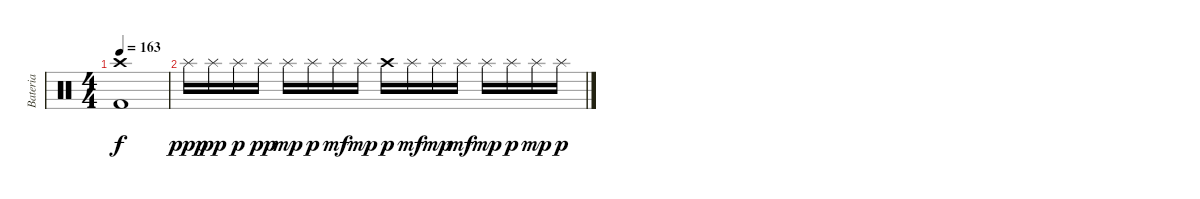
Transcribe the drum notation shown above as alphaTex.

\track ("Bateria" "Bateria") {instrument percussion}
\staff {score}
\articulation defaults
\ts (4 4)
\tempo 163
\clef neutral
\ks c
("Crash high (hit)" "Kick (hit) 2").1{dy f} |
"Splash (hit)".16{dy ppp} "Splash (hit)".16{dy pp} "Splash (hit)".16{dy p} "Splash (hit)".16{dy pp} "Splash (hit)".16{dy mp} "Splash (hit)".16{dy p} "Splash (hit)".16{dy mf} "Splash (hit)".16{dy mp} "Crash high (hit)".16{dy p} "Splash (hit)".16{dy mf} "Splash (hit)".16{dy mp} "Splash (hit)".16{dy mf} "Splash (hit)".16{dy mp} "Splash (hit)".16{dy p} "Splash (hit)".16{dy mp} "Splash (hit)".16{dy p}
